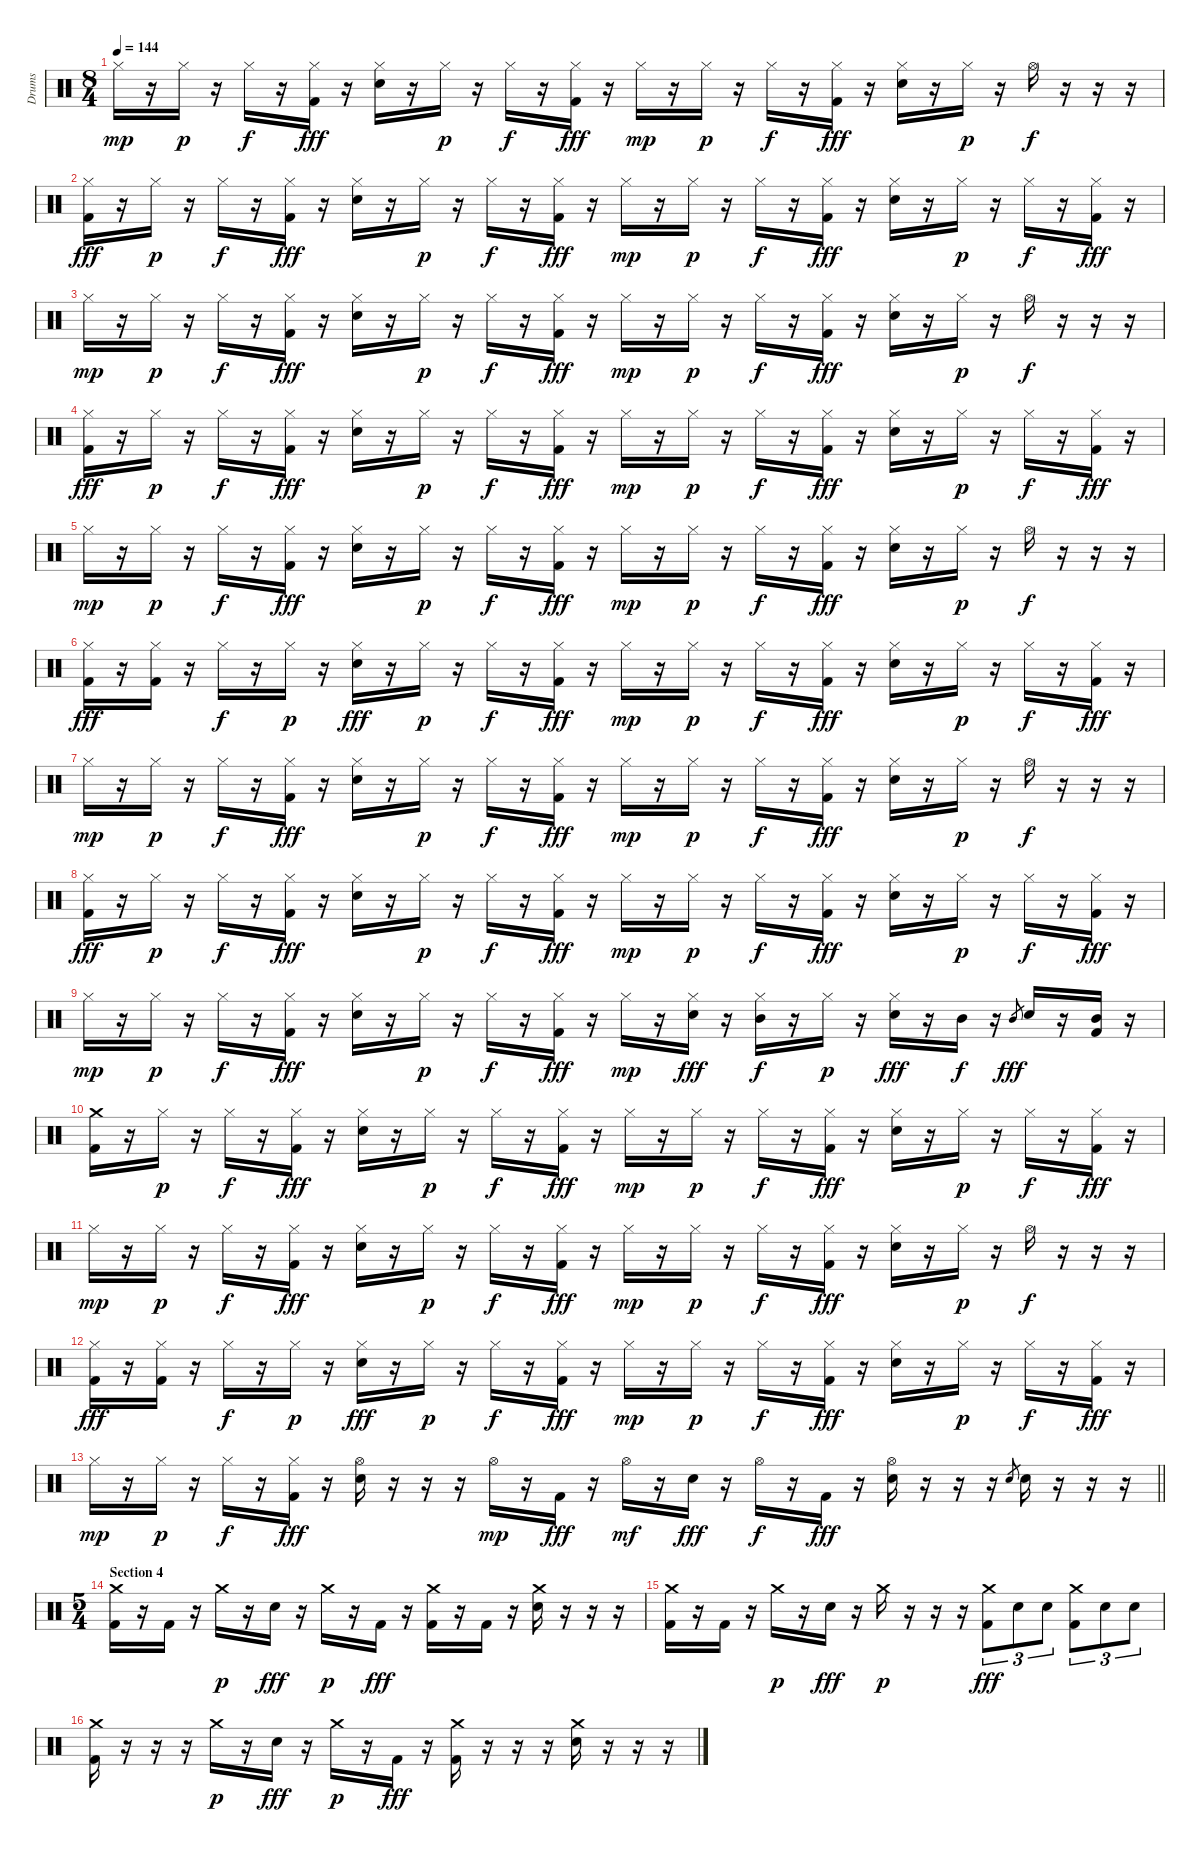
\track ("Drums" "Drums") {instrument percussion}
\staff {score}
\articulation defaults
\ts (8 4)
\tempo 144
\clef neutral
\ks c "Hi-Hat (closed)".16{dy mp}
r.16 "Hi-Hat (closed)".16{dy p} r.16 "Hi-Hat (closed)".16{dy f} r.16 ("Hi-Hat (closed)" "Kick (hit) 2").16{dy fff} r.16 ("Hi-Hat (closed)" "Electric Snare (hit)").16 r.16 "Hi-Hat (closed)".16{dy p} r.16 "Hi-Hat (closed)".16{dy f} r.16 ("Hi-Hat (closed)" "Kick (hit) 2").16{dy fff} r.16 "Hi-Hat (closed)".16{dy mp} r.16 "Hi-Hat (closed)".16{dy p} r.16 "Hi-Hat (closed)".16{dy f} r.16 ("Hi-Hat (closed)" "Kick (hit) 2").16{dy fff} r.16 ("Hi-Hat (closed)" "Electric Snare (hit)").16 r.16 "Hi-Hat (closed)".16{dy p} r.16 "Hi-Hat (open)".16{dy f} r.16 r.16 r.16 |
("Hi-Hat (closed)" "Kick (hit) 2").16{dy fff} r.16 "Hi-Hat (closed)".16{dy p} r.16 "Hi-Hat (closed)".16{dy f} r.16 ("Hi-Hat (closed)" "Kick (hit) 2").16{dy fff} r.16 ("Hi-Hat (closed)" "Electric Snare (hit)").16 r.16 "Hi-Hat (closed)".16{dy p} r.16 "Hi-Hat (closed)".16{dy f} r.16 ("Hi-Hat (closed)" "Kick (hit) 2").16{dy fff} r.16 "Hi-Hat (closed)".16{dy mp} r.16 "Hi-Hat (closed)".16{dy p} r.16 "Hi-Hat (closed)".16{dy f} r.16 ("Hi-Hat (closed)" "Kick (hit) 2").16{dy fff} r.16 ("Hi-Hat (closed)" "Electric Snare (hit)").16 r.16 "Hi-Hat (closed)".16{dy p} r.16 "Hi-Hat (closed)".16{dy f} r.16 ("Hi-Hat (closed)" "Kick (hit) 2").16{dy fff} r.16 |
"Hi-Hat (closed)".16{dy mp} r.16 "Hi-Hat (closed)".16{dy p} r.16 "Hi-Hat (closed)".16{dy f} r.16 ("Hi-Hat (closed)" "Kick (hit) 2").16{dy fff} r.16 ("Hi-Hat (closed)" "Electric Snare (hit)").16 r.16 "Hi-Hat (closed)".16{dy p} r.16 "Hi-Hat (closed)".16{dy f} r.16 ("Hi-Hat (closed)" "Kick (hit) 2").16{dy fff} r.16 "Hi-Hat (closed)".16{dy mp} r.16 "Hi-Hat (closed)".16{dy p} r.16 "Hi-Hat (closed)".16{dy f} r.16 ("Hi-Hat (closed)" "Kick (hit) 2").16{dy fff} r.16 ("Hi-Hat (closed)" "Electric Snare (hit)").16 r.16 "Hi-Hat (closed)".16{dy p} r.16 "Hi-Hat (open)".16{dy f} r.16 r.16 r.16 |
("Hi-Hat (closed)" "Kick (hit) 2").16{dy fff} r.16 "Hi-Hat (closed)".16{dy p} r.16 "Hi-Hat (closed)".16{dy f} r.16 ("Hi-Hat (closed)" "Kick (hit) 2").16{dy fff} r.16 ("Hi-Hat (closed)" "Electric Snare (hit)").16 r.16 "Hi-Hat (closed)".16{dy p} r.16 "Hi-Hat (closed)".16{dy f} r.16 ("Hi-Hat (closed)" "Kick (hit) 2").16{dy fff} r.16 "Hi-Hat (closed)".16{dy mp} r.16 "Hi-Hat (closed)".16{dy p} r.16 "Hi-Hat (closed)".16{dy f} r.16 ("Hi-Hat (closed)" "Kick (hit) 2").16{dy fff} r.16 ("Hi-Hat (closed)" "Electric Snare (hit)").16 r.16 "Hi-Hat (closed)".16{dy p} r.16 "Hi-Hat (closed)".16{dy f} r.16 ("Hi-Hat (closed)" "Kick (hit) 2").16{dy fff} r.16 |
"Hi-Hat (closed)".16{dy mp} r.16 "Hi-Hat (closed)".16{dy p} r.16 "Hi-Hat (closed)".16{dy f} r.16 ("Hi-Hat (closed)" "Kick (hit) 2").16{dy fff} r.16 ("Hi-Hat (closed)" "Electric Snare (hit)").16 r.16 "Hi-Hat (closed)".16{dy p} r.16 "Hi-Hat (closed)".16{dy f} r.16 ("Hi-Hat (closed)" "Kick (hit) 2").16{dy fff} r.16 "Hi-Hat (closed)".16{dy mp} r.16 "Hi-Hat (closed)".16{dy p} r.16 "Hi-Hat (closed)".16{dy f} r.16 ("Hi-Hat (closed)" "Kick (hit) 2").16{dy fff} r.16 ("Hi-Hat (closed)" "Electric Snare (hit)").16 r.16 "Hi-Hat (closed)".16{dy p} r.16 "Hi-Hat (open)".16{dy f} r.16 r.16 r.16 |
("Hi-Hat (closed)" "Kick (hit) 2").16{dy fff} r.16 ("Hi-Hat (closed)" "Kick (hit) 2").16 r.16 "Hi-Hat (closed)".16{dy f} r.16 "Hi-Hat (closed)".16{dy p} r.16 ("Hi-Hat (closed)" "Electric Snare (hit)").16{dy fff} r.16 "Hi-Hat (closed)".16{dy p} r.16 "Hi-Hat (closed)".16{dy f} r.16 ("Hi-Hat (closed)" "Kick (hit) 2").16{dy fff} r.16 "Hi-Hat (closed)".16{dy mp} r.16 "Hi-Hat (closed)".16{dy p} r.16 "Hi-Hat (closed)".16{dy f} r.16 ("Hi-Hat (closed)" "Kick (hit) 2").16{dy fff} r.16 ("Hi-Hat (closed)" "Electric Snare (hit)").16 r.16 "Hi-Hat (closed)".16{dy p} r.16 "Hi-Hat (closed)".16{dy f} r.16 ("Hi-Hat (closed)" "Kick (hit) 2").16{dy fff} r.16 |
"Hi-Hat (closed)".16{dy mp} r.16 "Hi-Hat (closed)".16{dy p} r.16 "Hi-Hat (closed)".16{dy f} r.16 ("Hi-Hat (closed)" "Kick (hit) 2").16{dy fff} r.16 ("Hi-Hat (closed)" "Electric Snare (hit)").16 r.16 "Hi-Hat (closed)".16{dy p} r.16 "Hi-Hat (closed)".16{dy f} r.16 ("Hi-Hat (closed)" "Kick (hit) 2").16{dy fff} r.16 "Hi-Hat (closed)".16{dy mp} r.16 "Hi-Hat (closed)".16{dy p} r.16 "Hi-Hat (closed)".16{dy f} r.16 ("Hi-Hat (closed)" "Kick (hit) 2").16{dy fff} r.16 ("Hi-Hat (closed)" "Electric Snare (hit)").16 r.16 "Hi-Hat (closed)".16{dy p} r.16 "Hi-Hat (open)".16{dy f} r.16 r.16 r.16 |
("Hi-Hat (closed)" "Kick (hit) 2").16{dy fff} r.16 "Hi-Hat (closed)".16{dy p} r.16 "Hi-Hat (closed)".16{dy f} r.16 ("Hi-Hat (closed)" "Kick (hit) 2").16{dy fff} r.16 ("Hi-Hat (closed)" "Electric Snare (hit)").16 r.16 "Hi-Hat (closed)".16{dy p} r.16 "Hi-Hat (closed)".16{dy f} r.16 ("Hi-Hat (closed)" "Kick (hit) 2").16{dy fff} r.16 "Hi-Hat (closed)".16{dy mp} r.16 "Hi-Hat (closed)".16{dy p} r.16 "Hi-Hat (closed)".16{dy f} r.16 ("Hi-Hat (closed)" "Kick (hit) 2").16{dy fff} r.16 ("Hi-Hat (closed)" "Electric Snare (hit)").16 r.16 "Hi-Hat (closed)".16{dy p} r.16 "Hi-Hat (closed)".16{dy f} r.16 ("Hi-Hat (closed)" "Kick (hit) 2").16{dy fff} r.16 |
"Hi-Hat (closed)".16{dy mp} r.16 "Hi-Hat (closed)".16{dy p} r.16 "Hi-Hat (closed)".16{dy f} r.16 ("Hi-Hat (closed)" "Kick (hit) 2").16{dy fff} r.16 ("Hi-Hat (closed)" "Electric Snare (hit)").16 r.16 "Hi-Hat (closed)".16{dy p} r.16 "Hi-Hat (closed)".16{dy f} r.16 ("Hi-Hat (closed)" "Kick (hit) 2").16{dy fff} r.16 "Hi-Hat (closed)".16{dy mp} r.16 ("Hi-Hat (closed)" "Electric Snare (hit)").16{dy fff} r.16 ("Hi-Hat (closed)" "Mid Tom (hit)").16{dy f} r.16 "Hi-Hat (closed)".16{dy p} r.16 ("Hi-Hat (closed)" "Electric Snare (hit)").16{dy fff} r.16 "Mid Tom (hit)".16{dy f} r.16 "Mid Tom (hit)".8{gr dy fff} "Electric Snare (hit)".16 r.16 ("Mid Tom (hit)" "Kick (hit) 2").16 r.16 |
("Crash medium (hit)" "Kick (hit) 2").16 r.16 "Hi-Hat (closed)".16{dy p} r.16 "Hi-Hat (closed)".16{dy f} r.16 ("Hi-Hat (closed)" "Kick (hit) 2").16{dy fff} r.16 ("Hi-Hat (closed)" "Electric Snare (hit)").16 r.16 "Hi-Hat (closed)".16{dy p} r.16 "Hi-Hat (closed)".16{dy f} r.16 ("Hi-Hat (closed)" "Kick (hit) 2").16{dy fff} r.16 "Hi-Hat (closed)".16{dy mp} r.16 "Hi-Hat (closed)".16{dy p} r.16 "Hi-Hat (closed)".16{dy f} r.16 ("Hi-Hat (closed)" "Kick (hit) 2").16{dy fff} r.16 ("Hi-Hat (closed)" "Electric Snare (hit)").16 r.16 "Hi-Hat (closed)".16{dy p} r.16 "Hi-Hat (closed)".16{dy f} r.16 ("Hi-Hat (closed)" "Kick (hit) 2").16{dy fff} r.16 |
"Hi-Hat (closed)".16{dy mp} r.16 "Hi-Hat (closed)".16{dy p} r.16 "Hi-Hat (closed)".16{dy f} r.16 ("Hi-Hat (closed)" "Kick (hit) 2").16{dy fff} r.16 ("Hi-Hat (closed)" "Electric Snare (hit)").16 r.16 "Hi-Hat (closed)".16{dy p} r.16 "Hi-Hat (closed)".16{dy f} r.16 ("Hi-Hat (closed)" "Kick (hit) 2").16{dy fff} r.16 "Hi-Hat (closed)".16{dy mp} r.16 "Hi-Hat (closed)".16{dy p} r.16 "Hi-Hat (closed)".16{dy f} r.16 ("Hi-Hat (closed)" "Kick (hit) 2").16{dy fff} r.16 ("Hi-Hat (closed)" "Electric Snare (hit)").16 r.16 "Hi-Hat (closed)".16{dy p} r.16 "Hi-Hat (open)".16{dy f} r.16 r.16 r.16 |
("Hi-Hat (closed)" "Kick (hit) 2").16{dy fff} r.16 ("Hi-Hat (closed)" "Kick (hit) 2").16 r.16 "Hi-Hat (closed)".16{dy f} r.16 "Hi-Hat (closed)".16{dy p} r.16 ("Hi-Hat (closed)" "Electric Snare (hit)").16{dy fff} r.16 "Hi-Hat (closed)".16{dy p} r.16 "Hi-Hat (closed)".16{dy f} r.16 ("Hi-Hat (closed)" "Kick (hit) 2").16{dy fff} r.16 "Hi-Hat (closed)".16{dy mp} r.16 "Hi-Hat (closed)".16{dy p} r.16 "Hi-Hat (closed)".16{dy f} r.16 ("Hi-Hat (closed)" "Kick (hit) 2").16{dy fff} r.16 ("Hi-Hat (closed)" "Electric Snare (hit)").16 r.16 "Hi-Hat (closed)".16{dy p} r.16 "Hi-Hat (closed)".16{dy f} r.16 ("Hi-Hat (closed)" "Kick (hit) 2").16{dy fff} r.16 |
\barLineRight lightlight "Hi-Hat (closed)".16{dy mp}
r.16 "Hi-Hat (closed)".16{dy p} r.16 "Hi-Hat (closed)".16{dy f} r.16 ("Hi-Hat (closed)" "Kick (hit) 2").16{dy fff} r.16 ("Hi-Hat (open)" "Electric Snare (hit)").16 r.16 r.16 r.16 "Hi-Hat (open)".16{dy mp} r.16 "Kick (hit) 2".16{dy fff} r.16 "Hi-Hat (open)".16{dy mf} r.16 "Electric Snare (hit)".16{dy fff} r.16 "Hi-Hat (open)".16{dy f} r.16 "Kick (hit) 2".16{dy fff} r.16 ("Hi-Hat (open)" "Electric Snare (hit)").16 r.16 r.16 r.16 "Electric Snare (hit)".8{gr} "Electric Snare (hit)".16 r.16 r.16 r.16 |
\ts (5 4)
\section ("" "Section 4")
("Crash medium (hit)" "Kick (hit) 2").16 r.16 "Kick (hit) 2".16 r.16 "Crash medium (hit)".16{dy p} r.16 "Electric Snare (hit)".16{dy fff} r.16 "Crash medium (hit)".16{dy p} r.16 "Kick (hit) 2".16{dy fff} r.16 ("Crash medium (hit)" "Kick (hit) 2").16 r.16 "Kick (hit) 2".16 r.16 ("Crash medium (hit)" "Electric Snare (hit)").16 r.16 r.16 r.16 |
("Crash medium (hit)" "Kick (hit) 2").16 r.16 "Kick (hit) 2".16 r.16 "Crash medium (hit)".16{dy p} r.16 "Electric Snare (hit)".16{dy fff} r.16 "Crash medium (hit)".16{dy p} r.16 r.16 r.16 ("Crash medium (hit)" "Kick (hit) 2").8{tu (3 2) dy fff} "Electric Snare (hit)".8{tu (3 2)} "Electric Snare (hit)".8{tu (3 2)} ("Crash medium (hit)" "Kick (hit) 2").8{tu (3 2)} "Electric Snare (hit)".8{tu (3 2)} "Electric Snare (hit)".8{tu (3 2)} |
("Crash medium (hit)" "Kick (hit) 2").16 r.16 r.16 r.16 "Crash medium (hit)".16{dy p} r.16 "Electric Snare (hit)".16{dy fff} r.16 "Crash medium (hit)".16{dy p} r.16 "Kick (hit) 2".16{dy fff} r.16 ("Crash medium (hit)" "Kick (hit) 2").16 r.16 r.16 r.16 ("Crash medium (hit)" "Electric Snare (hit)").16 r.16 r.16 r.16
